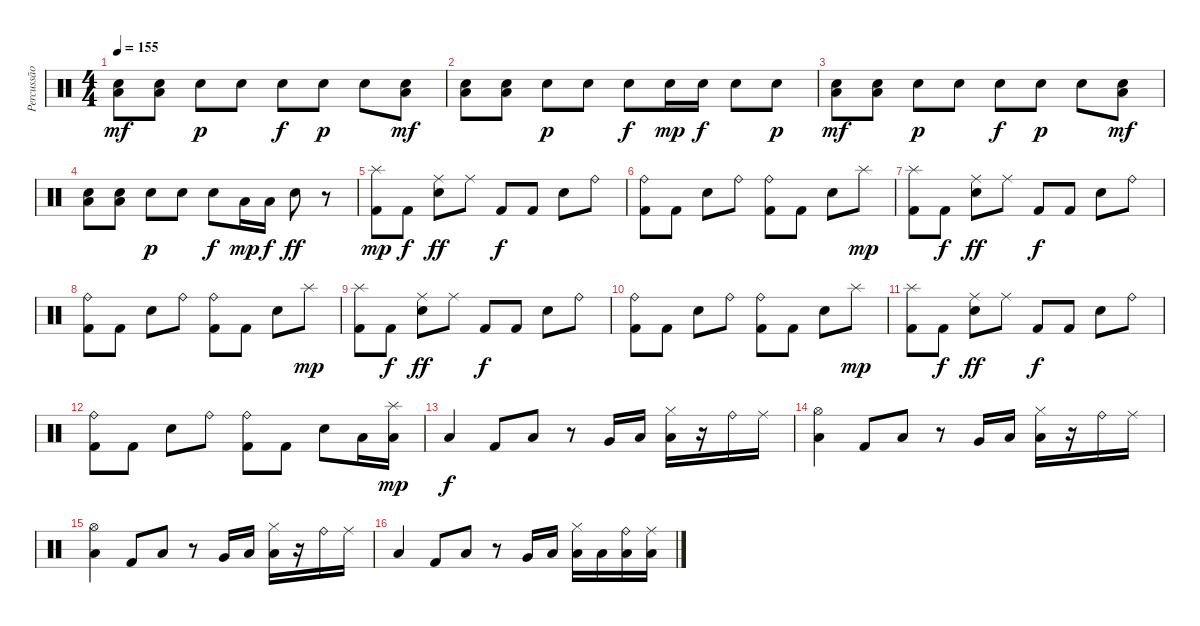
\track ("Percussão" "Percussão") {instrument percussion}
\staff {score}
\articulation defaults
\ts (4 4)
\tempo 155
\clef neutral
\ks c
("Electric Snare (hit)" "Low Tom (hit)").8{dy mf} ("Electric Snare (hit)" "Low Tom (hit)").8 "Electric Snare (hit)".8{dy p} "Electric Snare (hit)".8 "Electric Snare (hit)".8{dy f} "Electric Snare (hit)".8{dy p} "Electric Snare (hit)".8 ("Electric Snare (hit)" "Low Tom (hit)").8{dy mf} |
("Electric Snare (hit)" "Low Tom (hit)").8 ("Electric Snare (hit)" "Low Tom (hit)").8 "Electric Snare (hit)".8{dy p} "Electric Snare (hit)".8 "Electric Snare (hit)".8{dy f} "Electric Snare (hit)".16{dy mp} "Electric Snare (hit)".16{dy f} "Electric Snare (hit)".8 "Electric Snare (hit)".8{dy p} |
("Electric Snare (hit)" "Low Tom (hit)").8{dy mf} ("Electric Snare (hit)" "Low Tom (hit)").8 "Electric Snare (hit)".8{dy p} "Electric Snare (hit)".8 "Electric Snare (hit)".8{dy f} "Electric Snare (hit)".8{dy p} "Electric Snare (hit)".8 ("Electric Snare (hit)" "Low Tom (hit)").8{dy mf} |
("Electric Snare (hit)" "Low Tom (hit)").8 ("Electric Snare (hit)" "Low Tom (hit)").8 "Electric Snare (hit)".8{dy p} "Electric Snare (hit)".8 "Electric Snare (hit)".8{dy f} "Low Tom (hit)".16{dy mp} "Low Tom (hit)".16{dy f} "Electric Snare (hit)".8{dy ff} r.8 |
("Splash (hit)" "Kick (hit) 2").8{dy mp} "Kick (hit) 2".8{dy f} ("Ride (middle)" "Electric Snare (hit)").8{dy ff} "Ride (middle)".8 "Kick (hit) 2".8{dy f} "Kick (hit) 2".8 "Electric Snare (hit)".8 "Ride (bell)".8 |
("Ride (bell)" "Kick (hit) 2").8 "Kick (hit) 2".8 "Electric Snare (hit)".8 "Ride (bell)".8 ("Ride (bell)" "Kick (hit) 2").8 "Kick (hit) 2".8 "Electric Snare (hit)".8 "Splash (hit)".8{dy mp} |
("Splash (hit)" "Kick (hit) 2").8 "Kick (hit) 2".8{dy f} ("Ride (middle)" "Electric Snare (hit)").8{dy ff} "Ride (middle)".8 "Kick (hit) 2".8{dy f} "Kick (hit) 2".8 "Electric Snare (hit)".8 "Ride (bell)".8 |
("Ride (bell)" "Kick (hit) 2").8 "Kick (hit) 2".8 "Electric Snare (hit)".8 "Ride (bell)".8 ("Ride (bell)" "Kick (hit) 2").8 "Kick (hit) 2".8 "Electric Snare (hit)".8 "Splash (hit)".8{dy mp} |
("Splash (hit)" "Kick (hit) 2").8 "Kick (hit) 2".8{dy f} ("Ride (middle)" "Electric Snare (hit)").8{dy ff} "Ride (middle)".8 "Kick (hit) 2".8{dy f} "Kick (hit) 2".8 "Electric Snare (hit)".8 "Ride (bell)".8 |
("Ride (bell)" "Kick (hit) 2").8 "Kick (hit) 2".8 "Electric Snare (hit)".8 "Ride (bell)".8 ("Ride (bell)" "Kick (hit) 2").8 "Kick (hit) 2".8 "Electric Snare (hit)".8 "Splash (hit)".8{dy mp} |
("Splash (hit)" "Kick (hit) 2").8 "Kick (hit) 2".8{dy f} ("Ride (middle)" "Electric Snare (hit)").8{dy ff} "Ride (middle)".8 "Kick (hit) 2".8{dy f} "Kick (hit) 2".8 "Electric Snare (hit)".8 "Ride (bell)".8 |
("Ride (bell)" "Kick (hit) 2").8 "Kick (hit) 2".8 "Electric Snare (hit)".8 "Ride (bell)".8 ("Ride (bell)" "Kick (hit) 2").8 "Kick (hit) 2".8 "Electric Snare (hit)".8 "Low Tom (hit)".16 ("Splash (hit)" "Low Tom (hit)").16{dy mp} |
"Low Tom (hit)".4{dy f} "Kick (hit) 2".8 "Low Tom (hit)".8 r.8 "Very Low Tom (hit)".16 "Low Tom (hit)".16 ("Hi-Hat (closed)" "Low Tom (hit)").16 r.16 "Ride (bell)".16 "Ride (middle)".16 |
("Hi-Hat (open)" "Low Tom (hit)").4 "Kick (hit) 2".8 "Low Tom (hit)".8 r.8 "Very Low Tom (hit)".16 "Low Tom (hit)".16 ("Hi-Hat (closed)" "Low Tom (hit)").16 r.16 "Ride (bell)".16 "Ride (middle)".16 |
("Hi-Hat (open)" "Low Tom (hit)").4 "Kick (hit) 2".8 "Low Tom (hit)".8 r.8 "Very Low Tom (hit)".16 "Low Tom (hit)".16 ("Hi-Hat (closed)" "Low Tom (hit)").16 r.16 "Ride (bell)".16 "Ride (middle)".16 |
"Low Tom (hit)".4 "Kick (hit) 2".8 "Low Tom (hit)".8 r.8 "Very Low Tom (hit)".16 "Low Tom (hit)".16 ("Hi-Hat (closed)" "Low Tom (hit)").16 "Low Tom (hit)".16 ("Ride (bell)" "Low Tom (hit)").16 ("Ride (middle)" "Low Tom (hit)").16
